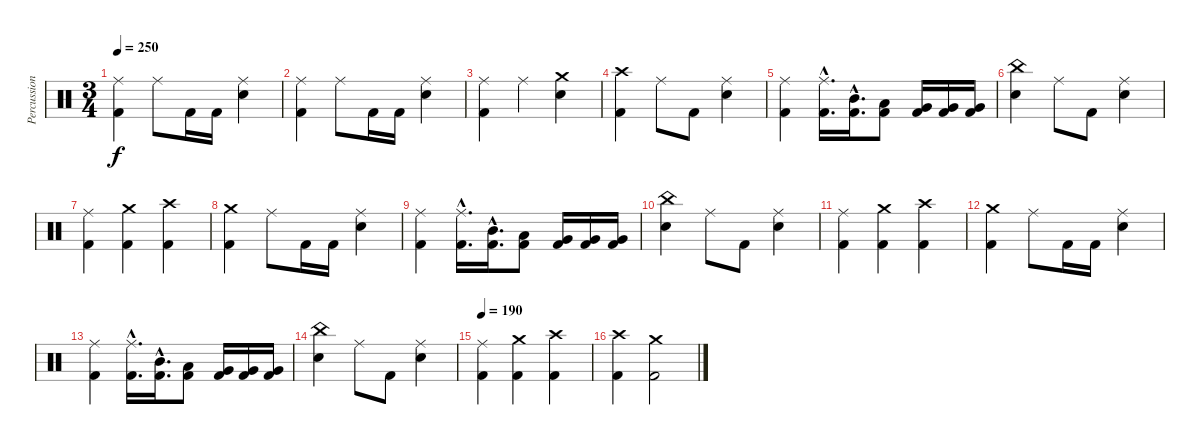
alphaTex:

\track ("Percussion" "Percussion") {instrument percussion}
\staff {score}
\articulation defaults
\ts (3 4)
\tempo 250
\clef neutral
\ks c
("Ride (middle)" "Kick (hit) 2").4{dy f} "Ride (middle)".8 "Kick (hit) 2".16 "Kick (hit) 2".16 ("Ride (middle)" "Electric Snare (hit)").4 |
("Ride (middle)" "Kick (hit) 2").4 "Ride (middle)".8 "Kick (hit) 2".16 "Kick (hit) 2".16 ("Ride (middle)" "Electric Snare (hit)").4 |
("Ride (middle)" "Kick (hit) 2").4 "Ride (middle)".4 ("Crash medium (hit)" "Electric Snare (hit)").4 |
("Crash high (hit)" "Kick (hit) 2").4 "Ride (middle)".8 "Kick (hit) 2".8 ("Ride (middle)" "Electric Snare (hit)").4 |
("Ride (middle)" "Kick (hit) 2").4 ("Ride (middle)"{hac} "Kick (hit) 2"{hac}).16{d} ("Mid Tom (hit)"{hac} "Kick (hit) 2"{hac}).16{d} ("Low Tom (hit)" "Kick (hit) 2").8 ("Very Low Tom (hit)" "Kick (hit) 2").16 ("Very Low Tom (hit)" "Kick (hit) 2").16 ("Very Low Tom (hit)" "Kick (hit) 2").16 |
("China (hit)" "Electric Snare (hit)").4 "Ride (middle)".8 "Kick (hit) 2".8 ("Ride (middle)" "Electric Snare (hit)").4 |
("Ride (middle)" "Kick (hit) 2").4 ("Crash medium (hit)" "Kick (hit) 2").4 ("Crash high (hit)" "Kick (hit) 2").4 |
("Crash medium (hit)" "Kick (hit) 2").4 "Ride (middle)".8 "Kick (hit) 2".16 "Kick (hit) 2".16 ("Ride (middle)" "Electric Snare (hit)").4 |
("Ride (middle)" "Kick (hit) 2").4 ("Ride (middle)"{hac} "Kick (hit) 2"{hac}).16{d} ("Mid Tom (hit)"{hac} "Kick (hit) 2"{hac}).16{d} ("Low Tom (hit)" "Kick (hit) 2").8 ("Very Low Tom (hit)" "Kick (hit) 2").16 ("Very Low Tom (hit)" "Kick (hit) 2").16 ("Very Low Tom (hit)" "Kick (hit) 2").16 |
("China (hit)" "Electric Snare (hit)").4 "Ride (middle)".8 "Kick (hit) 2".8 ("Ride (middle)" "Electric Snare (hit)").4 |
("Ride (middle)" "Kick (hit) 2").4 ("Crash medium (hit)" "Kick (hit) 2").4 ("Crash high (hit)" "Kick (hit) 2").4 |
("Crash medium (hit)" "Kick (hit) 2").4 "Ride (middle)".8 "Kick (hit) 2".16 "Kick (hit) 2".16 ("Ride (middle)" "Electric Snare (hit)").4 |
("Ride (middle)" "Kick (hit) 2").4 ("Ride (middle)"{hac} "Kick (hit) 2"{hac}).16{d} ("Mid Tom (hit)"{hac} "Kick (hit) 2"{hac}).16{d} ("Low Tom (hit)" "Kick (hit) 2").8 ("Very Low Tom (hit)" "Kick (hit) 2").16 ("Very Low Tom (hit)" "Kick (hit) 2").16 ("Very Low Tom (hit)" "Kick (hit) 2").16 |
("China (hit)" "Electric Snare (hit)").4 "Ride (middle)".8 "Kick (hit) 2".8 ("Ride (middle)" "Electric Snare (hit)").4 |
\tempo 190
("Ride (middle)" "Kick (hit) 2").4 ("Crash medium (hit)" "Kick (hit) 2").4 ("Crash high (hit)" "Kick (hit) 2").4 |
("Crash high (hit)" "Kick (hit) 2").4 ("Crash medium (hit)" "Kick (hit) 2").2
